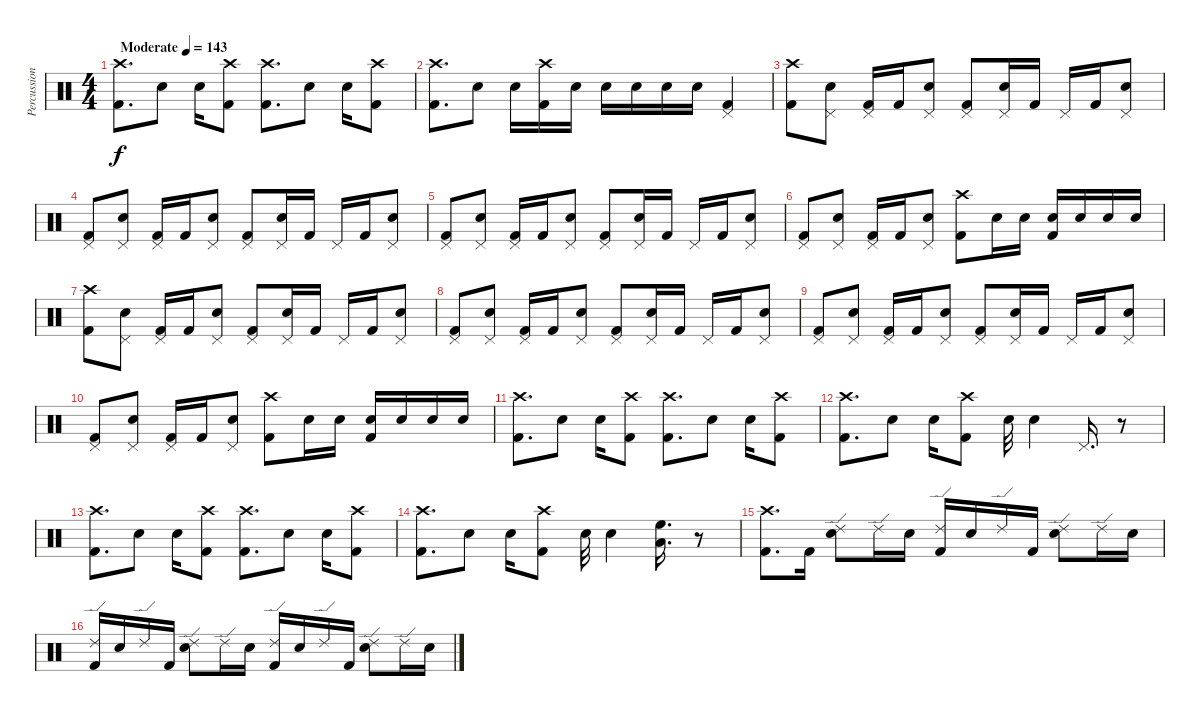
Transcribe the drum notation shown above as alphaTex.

\track ("Percussion" "Percussion") {instrument percussion}
\staff {score}
\articulation defaults
\ts (4 4)
\tempo (143 "Moderate")
\clef neutral
\ks c
("Crash high (hit)" "Kick (hit) 2").8{d dy f} "Electric Snare (hit)".8 "Electric Snare (hit)".16 ("Crash high (hit)" "Kick (hit) 2").8 ("Crash high (hit)" "Kick (hit) 2").8{d} "Electric Snare (hit)".8 "Electric Snare (hit)".16 ("Crash high (hit)" "Kick (hit) 2").8 |
("Crash high (hit)" "Kick (hit) 2").8{d} "Electric Snare (hit)".8 "Electric Snare (hit)".16 ("Crash high (hit)" "Kick (hit) 2").16 "Electric Snare (hit)".16 "Electric Snare (hit)".16 "Electric Snare (hit)".16 "Electric Snare (hit)".16 "Electric Snare (hit)".16 ("Pedal Hi-Hat (hit)" "Kick (hit) 2").4 |
("Crash high (hit)" "Kick (hit) 2").8 ("Pedal Hi-Hat (hit)" "Electric Snare (hit)").8 ("Pedal Hi-Hat (hit)" "Kick (hit) 2").16 "Kick (hit) 2".16 ("Pedal Hi-Hat (hit)" "Electric Snare (hit)").8 ("Pedal Hi-Hat (hit)" "Kick (hit) 2").8 ("Pedal Hi-Hat (hit)" "Electric Snare (hit)").16 "Kick (hit) 2".16 "Pedal Hi-Hat (hit)".16 "Kick (hit) 2".16 ("Pedal Hi-Hat (hit)" "Electric Snare (hit)").8 |
("Pedal Hi-Hat (hit)" "Kick (hit) 2").8 ("Pedal Hi-Hat (hit)" "Electric Snare (hit)").8 ("Pedal Hi-Hat (hit)" "Kick (hit) 2").16 "Kick (hit) 2".16 ("Pedal Hi-Hat (hit)" "Electric Snare (hit)").8 ("Pedal Hi-Hat (hit)" "Kick (hit) 2").8 ("Pedal Hi-Hat (hit)" "Electric Snare (hit)").16 "Kick (hit) 2".16 "Pedal Hi-Hat (hit)".16 "Kick (hit) 2".16 ("Pedal Hi-Hat (hit)" "Electric Snare (hit)").8 |
("Pedal Hi-Hat (hit)" "Kick (hit) 2").8 ("Pedal Hi-Hat (hit)" "Electric Snare (hit)").8 ("Pedal Hi-Hat (hit)" "Kick (hit) 2").16 "Kick (hit) 2".16 ("Pedal Hi-Hat (hit)" "Electric Snare (hit)").8 ("Pedal Hi-Hat (hit)" "Kick (hit) 2").8 ("Pedal Hi-Hat (hit)" "Electric Snare (hit)").16 "Kick (hit) 2".16 "Pedal Hi-Hat (hit)".16 "Kick (hit) 2".16 ("Pedal Hi-Hat (hit)" "Electric Snare (hit)").8 |
("Pedal Hi-Hat (hit)" "Kick (hit) 2").8 ("Pedal Hi-Hat (hit)" "Electric Snare (hit)").8 ("Pedal Hi-Hat (hit)" "Kick (hit) 2").16 "Kick (hit) 2".16 ("Pedal Hi-Hat (hit)" "Electric Snare (hit)").8 ("Crash high (hit)" "Kick (hit) 2").8 "Electric Snare (hit)".16 "Electric Snare (hit)".16 ("Electric Snare (hit)" "Kick (hit) 2").16 "Electric Snare (hit)".16 "Electric Snare (hit)".16 "Electric Snare (hit)".16 |
("Crash high (hit)" "Kick (hit) 2").8 ("Pedal Hi-Hat (hit)" "Electric Snare (hit)").8 ("Pedal Hi-Hat (hit)" "Kick (hit) 2").16 "Kick (hit) 2".16 ("Pedal Hi-Hat (hit)" "Electric Snare (hit)").8 ("Pedal Hi-Hat (hit)" "Kick (hit) 2").8 ("Pedal Hi-Hat (hit)" "Electric Snare (hit)").16 "Kick (hit) 2".16 "Pedal Hi-Hat (hit)".16 "Kick (hit) 2".16 ("Pedal Hi-Hat (hit)" "Electric Snare (hit)").8 |
("Pedal Hi-Hat (hit)" "Kick (hit) 2").8 ("Pedal Hi-Hat (hit)" "Electric Snare (hit)").8 ("Pedal Hi-Hat (hit)" "Kick (hit) 2").16 "Kick (hit) 2".16 ("Pedal Hi-Hat (hit)" "Electric Snare (hit)").8 ("Pedal Hi-Hat (hit)" "Kick (hit) 2").8 ("Pedal Hi-Hat (hit)" "Electric Snare (hit)").16 "Kick (hit) 2".16 "Pedal Hi-Hat (hit)".16 "Kick (hit) 2".16 ("Pedal Hi-Hat (hit)" "Electric Snare (hit)").8 |
("Pedal Hi-Hat (hit)" "Kick (hit) 2").8 ("Pedal Hi-Hat (hit)" "Electric Snare (hit)").8 ("Pedal Hi-Hat (hit)" "Kick (hit) 2").16 "Kick (hit) 2".16 ("Pedal Hi-Hat (hit)" "Electric Snare (hit)").8 ("Pedal Hi-Hat (hit)" "Kick (hit) 2").8 ("Pedal Hi-Hat (hit)" "Electric Snare (hit)").16 "Kick (hit) 2".16 "Pedal Hi-Hat (hit)".16 "Kick (hit) 2".16 ("Pedal Hi-Hat (hit)" "Electric Snare (hit)").8 |
("Pedal Hi-Hat (hit)" "Kick (hit) 2").8 ("Pedal Hi-Hat (hit)" "Electric Snare (hit)").8 ("Pedal Hi-Hat (hit)" "Kick (hit) 2").16 "Kick (hit) 2".16 ("Pedal Hi-Hat (hit)" "Electric Snare (hit)").8 ("Crash high (hit)" "Kick (hit) 2").8 "Electric Snare (hit)".16 "Electric Snare (hit)".16 ("Electric Snare (hit)" "Kick (hit) 2").16 "Electric Snare (hit)".16 "Electric Snare (hit)".16 "Electric Snare (hit)".16 |
("Crash high (hit)" "Kick (hit) 2").8{d} "Electric Snare (hit)".8 "Electric Snare (hit)".16 ("Crash high (hit)" "Kick (hit) 2").8 ("Crash high (hit)" "Kick (hit) 2").8{d} "Electric Snare (hit)".8 "Electric Snare (hit)".16 ("Crash high (hit)" "Kick (hit) 2").8 |
("Crash high (hit)" "Kick (hit) 2").8{d} "Electric Snare (hit)".8 "Electric Snare (hit)".16 ("Crash high (hit)" "Kick (hit) 2").8 "Electric Snare (hit)".32 "Electric Snare (hit)".4 "Pedal Hi-Hat (hit)".16{d} r.8 |
("Crash high (hit)" "Kick (hit) 2").8{d} "Electric Snare (hit)".8 "Electric Snare (hit)".16 ("Crash high (hit)" "Kick (hit) 2").8 ("Crash high (hit)" "Kick (hit) 2").8{d} "Electric Snare (hit)".8 "Electric Snare (hit)".16 ("Crash high (hit)" "Kick (hit) 2").8 |
("Crash high (hit)" "Kick (hit) 2").8{d} "Electric Snare (hit)".8 "Electric Snare (hit)".16 ("Crash high (hit)" "Kick (hit) 2").8 "Electric Snare (hit)".32 "Electric Snare (hit)".4 ("Low Tom (hit)" "High Floor Tom (hit)").16{d} r.8 |
("Crash high (hit)" "Kick (hit) 2").8{d} "Kick (hit) 2".16 ("Ride (edge) 2" "Electric Snare (hit)").8 "Ride (edge) 2".16 "Electric Snare (hit)".16 ("Ride (edge) 2" "Kick (hit) 2").16 "Electric Snare (hit)".16 "Ride (edge) 2".16 "Kick (hit) 2".16 ("Ride (edge) 2" "Electric Snare (hit)").8 "Ride (edge) 2".16 "Electric Snare (hit)".16 |
("Ride (edge) 2" "Kick (hit) 2").16 "Electric Snare (hit)".16 "Ride (edge) 2".16 "Kick (hit) 2".16 ("Ride (edge) 2" "Electric Snare (hit)").8 "Ride (edge) 2".16 "Electric Snare (hit)".16 ("Ride (edge) 2" "Kick (hit) 2").16 "Electric Snare (hit)".16 "Ride (edge) 2".16 "Kick (hit) 2".16 ("Ride (edge) 2" "Electric Snare (hit)").8 "Ride (edge) 2".16 "Electric Snare (hit)".16
